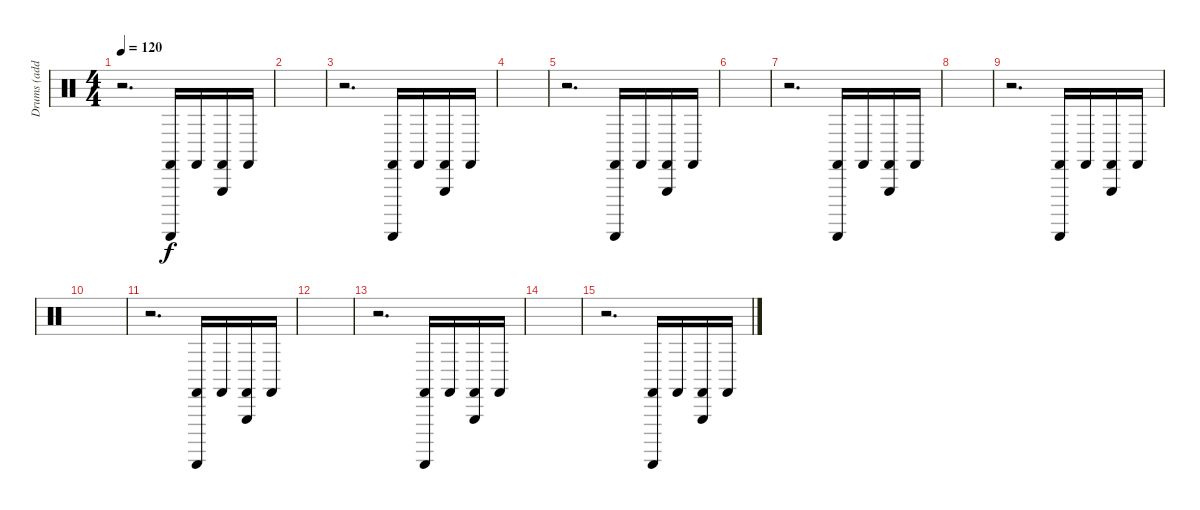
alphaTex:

\track ("Drums (additional 2)" "Drums (add") {instrument percussion}
\staff {score}
\articulation defaults
\ts (4 4)
\tempo 120
\clef neutral
\ks c
r.2{d dy f} ("Guiro (scrap-return)" "Castanets (hit)").16 "Castanets (hit)".16 ("Triangle (hit)" "Castanets (hit)").16 "Castanets (hit)".16 |
|
r.2{d} ("Guiro (scrap-return)" "Castanets (hit)").16 "Castanets (hit)".16 ("Triangle (hit)" "Castanets (hit)").16 "Castanets (hit)".16 |
|
r.2{d} ("Guiro (scrap-return)" "Castanets (hit)").16 "Castanets (hit)".16 ("Triangle (hit)" "Castanets (hit)").16 "Castanets (hit)".16 |
|
r.2{d} ("Guiro (scrap-return)" "Castanets (hit)").16 "Castanets (hit)".16 ("Triangle (hit)" "Castanets (hit)").16 "Castanets (hit)".16 |
|
r.2{d} ("Guiro (scrap-return)" "Castanets (hit)").16 "Castanets (hit)".16 ("Triangle (hit)" "Castanets (hit)").16 "Castanets (hit)".16 |
|
r.2{d} ("Guiro (scrap-return)" "Castanets (hit)").16 "Castanets (hit)".16 ("Triangle (hit)" "Castanets (hit)").16 "Castanets (hit)".16 |
|
r.2{d} ("Guiro (scrap-return)" "Castanets (hit)").16 "Castanets (hit)".16 ("Triangle (hit)" "Castanets (hit)").16 "Castanets (hit)".16 |
|
r.2{d} ("Guiro (scrap-return)" "Castanets (hit)").16 "Castanets (hit)".16 ("Triangle (hit)" "Castanets (hit)").16 "Castanets (hit)".16
